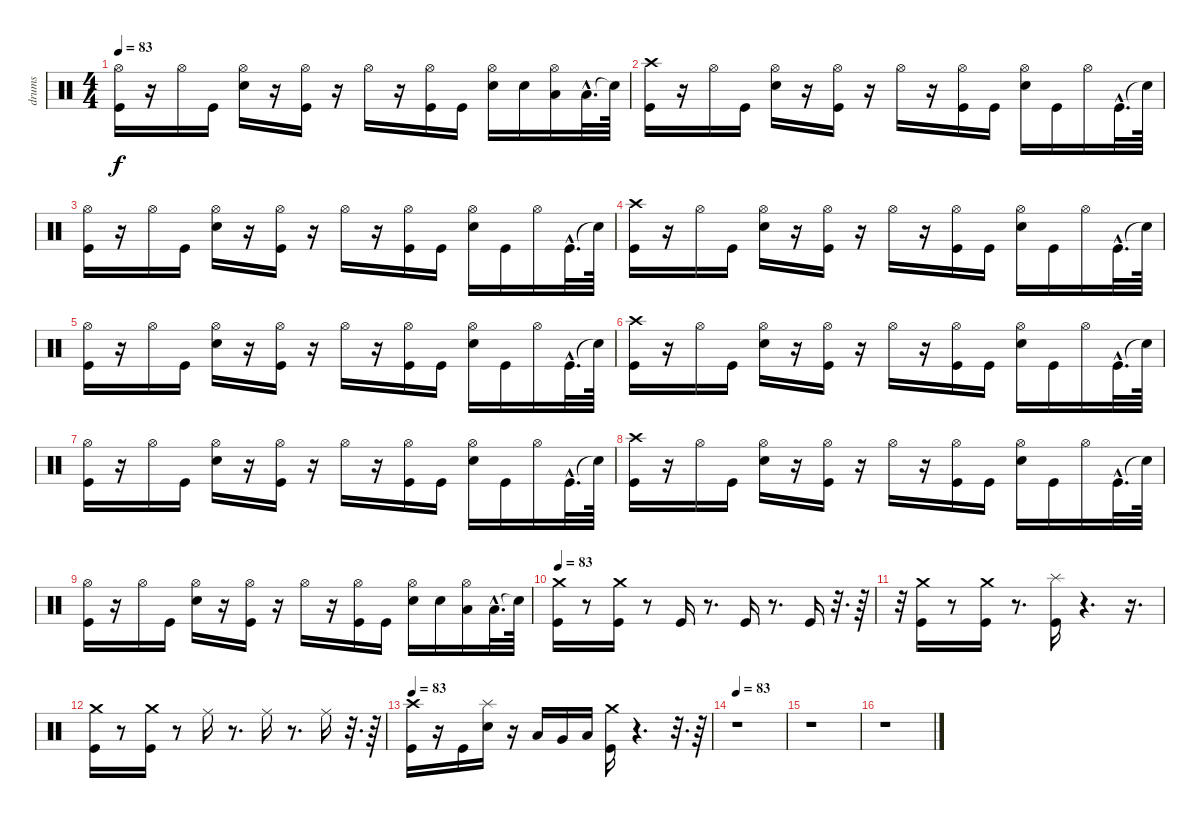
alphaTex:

\track ("drums" "drums") {instrument percussion}
\staff {score}
\articulation defaults
\ts (4 4)
\tempo 83
\clef neutral
\ks c
("Hi-Hat (open)" "Kick (hit)").16{dy f} r.16 "Hi-Hat (open)".16 "Kick (hit)".16 ("Hi-Hat (open)" "Electric Snare (hit)").16 r.16 ("Hi-Hat (open)" "Kick (hit)").16 r.16 "Hi-Hat (open)".16 r.16 ("Hi-Hat (open)" "Kick (hit)").16 "Kick (hit)".16 ("Hi-Hat (open)" "Electric Snare (hit)").16 "Electric Snare (hit)".16 ("Low Tom (hit)" "Hi-Hat (open)").16 "Low Tom (hit)"{hac}.32{d} "Snare (hit)"{t}.64 |
("Crash high (hit)" "Kick (hit)").16 r.16 "Hi-Hat (open)".16 "Kick (hit)".16 ("Hi-Hat (open)" "Electric Snare (hit)").16 r.16 ("Hi-Hat (open)" "Kick (hit)").16 r.16 "Hi-Hat (open)".16 r.16 ("Hi-Hat (open)" "Kick (hit)").16 "Kick (hit)".16 ("Hi-Hat (open)" "Electric Snare (hit)").16 "Kick (hit)".16 "Hi-Hat (open)".16 "Kick (hit)"{hac}.32{d} "Snare (hit)"{t}.64 |
("Hi-Hat (open)" "Kick (hit)").16 r.16 "Hi-Hat (open)".16 "Kick (hit)".16 ("Hi-Hat (open)" "Electric Snare (hit)").16 r.16 ("Hi-Hat (open)" "Kick (hit)").16 r.16 "Hi-Hat (open)".16 r.16 ("Hi-Hat (open)" "Kick (hit)").16 "Kick (hit)".16 ("Hi-Hat (open)" "Electric Snare (hit)").16 "Kick (hit)".16 "Hi-Hat (open)".16 "Kick (hit)"{hac}.32{d} "Snare (hit)"{t}.64 |
("Crash high (hit)" "Kick (hit)").16 r.16 "Hi-Hat (open)".16 "Kick (hit)".16 ("Hi-Hat (open)" "Electric Snare (hit)").16 r.16 ("Hi-Hat (open)" "Kick (hit)").16 r.16 "Hi-Hat (open)".16 r.16 ("Hi-Hat (open)" "Kick (hit)").16 "Kick (hit)".16 ("Hi-Hat (open)" "Electric Snare (hit)").16 "Kick (hit)".16 "Hi-Hat (open)".16 "Kick (hit)"{hac}.32{d} "Snare (hit)"{t}.64 |
("Hi-Hat (open)" "Kick (hit)").16 r.16 "Hi-Hat (open)".16 "Kick (hit)".16 ("Hi-Hat (open)" "Electric Snare (hit)").16 r.16 ("Hi-Hat (open)" "Kick (hit)").16 r.16 "Hi-Hat (open)".16 r.16 ("Hi-Hat (open)" "Kick (hit)").16 "Kick (hit)".16 ("Hi-Hat (open)" "Electric Snare (hit)").16 "Kick (hit)".16 "Hi-Hat (open)".16 "Kick (hit)"{hac}.32{d} "Snare (hit)"{t}.64 |
("Crash high (hit)" "Kick (hit)").16 r.16 "Hi-Hat (open)".16 "Kick (hit)".16 ("Hi-Hat (open)" "Electric Snare (hit)").16 r.16 ("Hi-Hat (open)" "Kick (hit)").16 r.16 "Hi-Hat (open)".16 r.16 ("Hi-Hat (open)" "Kick (hit)").16 "Kick (hit)".16 ("Hi-Hat (open)" "Electric Snare (hit)").16 "Kick (hit)".16 "Hi-Hat (open)".16 "Kick (hit)"{hac}.32{d} "Snare (hit)"{t}.64 |
("Hi-Hat (open)" "Kick (hit)").16 r.16 "Hi-Hat (open)".16 "Kick (hit)".16 ("Hi-Hat (open)" "Electric Snare (hit)").16 r.16 ("Hi-Hat (open)" "Kick (hit)").16 r.16 "Hi-Hat (open)".16 r.16 ("Hi-Hat (open)" "Kick (hit)").16 "Kick (hit)".16 ("Hi-Hat (open)" "Electric Snare (hit)").16 "Kick (hit)".16 "Hi-Hat (open)".16 "Kick (hit)"{hac}.32{d} "Snare (hit)"{t}.64 |
("Crash high (hit)" "Kick (hit)").16 r.16 "Hi-Hat (open)".16 "Kick (hit)".16 ("Hi-Hat (open)" "Electric Snare (hit)").16 r.16 ("Hi-Hat (open)" "Kick (hit)").16 r.16 "Hi-Hat (open)".16 r.16 ("Hi-Hat (open)" "Kick (hit)").16 "Kick (hit)".16 ("Hi-Hat (open)" "Electric Snare (hit)").16 "Kick (hit)".16 "Hi-Hat (open)".16 "Kick (hit)"{hac}.32{d} "Snare (hit)"{t}.64 |
("Hi-Hat (open)" "Kick (hit)").16 r.16 "Hi-Hat (open)".16 "Kick (hit)".16 ("Hi-Hat (open)" "Electric Snare (hit)").16 r.16 ("Hi-Hat (open)" "Kick (hit)").16 r.16 "Hi-Hat (open)".16 r.16 ("Hi-Hat (open)" "Kick (hit)").16 "Kick (hit)".16 ("Hi-Hat (open)" "Electric Snare (hit)").16 "Electric Snare (hit)".16 ("Low Tom (hit)" "Hi-Hat (open)").16 "Low Tom (hit)"{hac}.32{d} "Snare (hit)"{t}.64 |
\tempo 83
("Crash medium (hit)" "Kick (hit)").16 r.8 ("Crash medium (hit)" "Kick (hit)").16 r.8 "Kick (hit)".16 r.8{d} "Kick (hit)".16 r.8{d} "Kick (hit)".16 r.32{d} r.64 |
r.32 ("Crash medium (hit)" "Kick (hit)").16 r.8 ("Crash medium (hit)" "Kick (hit)").16 r.8{d} ("Splash (hit)" "Kick (hit)").16 r.4{d} r.16{d} |
("Crash medium (hit)" "Kick (hit)").16 r.8 ("Crash medium (hit)" "Kick (hit)").16 r.8 "Ride (middle)".16 r.8{d} "Ride (middle)".16 r.8{d} "Ride (middle)".16 r.32{d} r.64 |
\tempo 83
("Crash high (hit)" "Kick (hit)").16 r.16 "Kick (hit)".16 ("Splash (hit)" "Electric Snare (hit)").16 r.16 "Low Tom (hit)".16 "Very Low Tom (hit)".16 "Low Floor Tom (hit)".16 ("Crash medium (hit)" "Kick (hit)").16 r.4{d} r.32{d} r.64 |
\tempo 83
r.1 |
r.1 |
r.1
